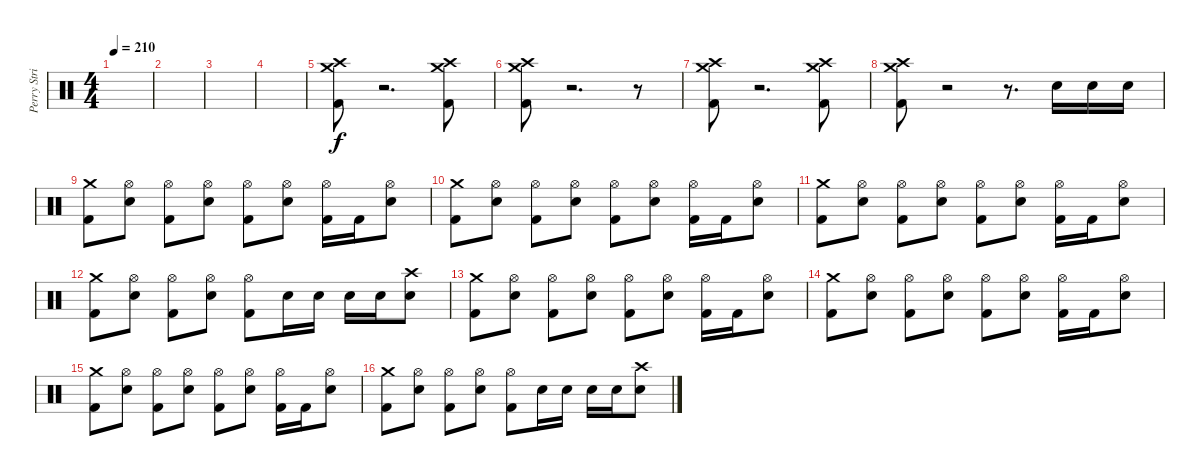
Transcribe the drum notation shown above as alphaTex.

\track ("Perry Strickland" "Perry Stri") {instrument percussion}
\staff {score}
\articulation defaults
\ts (4 4)
\tempo 210
\clef neutral
\ks c
|
|
|
|
("Crash high (hit)" "Crash medium (hit)" "Kick (hit) 2").8 r.2{d} ("Crash high (hit)" "Crash medium (hit)" "Kick (hit) 2").8 |
("Crash high (hit)" "Crash medium (hit)" "Kick (hit) 2").8 r.2{d} r.8 |
("Crash high (hit)" "Crash medium (hit)" "Kick (hit) 2").8 r.2{d} ("Crash high (hit)" "Crash medium (hit)" "Kick (hit) 2").8 |
("Crash high (hit)" "Crash medium (hit)" "Kick (hit) 2").8 r.2 r.8{d} "Snare (hit) 2".16 "Snare (hit) 2".16 "Snare (hit) 2".16 |
("Crash medium (hit)" "Kick (hit) 2").8 ("Hi-Hat (open)" "Snare (hit) 2").8 ("Hi-Hat (open)" "Kick (hit) 2").8 ("Hi-Hat (open)" "Snare (hit) 2").8 ("Hi-Hat (open)" "Kick (hit) 2").8 ("Hi-Hat (open)" "Snare (hit) 2").8 ("Hi-Hat (open)" "Kick (hit) 2").16 "Kick (hit) 2".16 ("Hi-Hat (open)" "Snare (hit) 2").8 |
("Crash medium (hit)" "Kick (hit) 2").8 ("Hi-Hat (open)" "Snare (hit) 2").8 ("Hi-Hat (open)" "Kick (hit) 2").8 ("Hi-Hat (open)" "Snare (hit) 2").8 ("Hi-Hat (open)" "Kick (hit) 2").8 ("Hi-Hat (open)" "Snare (hit) 2").8 ("Hi-Hat (open)" "Kick (hit) 2").16 "Kick (hit) 2".16 ("Hi-Hat (open)" "Snare (hit) 2").8 |
("Crash medium (hit)" "Kick (hit) 2").8 ("Hi-Hat (open)" "Snare (hit) 2").8 ("Hi-Hat (open)" "Kick (hit) 2").8 ("Hi-Hat (open)" "Snare (hit) 2").8 ("Hi-Hat (open)" "Kick (hit) 2").8 ("Hi-Hat (open)" "Snare (hit) 2").8 ("Hi-Hat (open)" "Kick (hit) 2").16 "Kick (hit) 2".16 ("Hi-Hat (open)" "Snare (hit) 2").8 |
("Crash medium (hit)" "Kick (hit) 2").8 ("Hi-Hat (open)" "Snare (hit) 2").8 ("Hi-Hat (open)" "Kick (hit) 2").8 ("Hi-Hat (open)" "Snare (hit) 2").8 ("Hi-Hat (open)" "Kick (hit) 2").8 "Snare (hit) 2".16 "Snare (hit) 2".16 "Snare (hit) 2".16 "Snare (hit) 2".16 ("Crash high (hit)" "Snare (hit) 2").8 |
("Crash medium (hit)" "Kick (hit) 2").8 ("Hi-Hat (open)" "Snare (hit) 2").8 ("Hi-Hat (open)" "Kick (hit) 2").8 ("Hi-Hat (open)" "Snare (hit) 2").8 ("Hi-Hat (open)" "Kick (hit) 2").8 ("Hi-Hat (open)" "Snare (hit) 2").8 ("Hi-Hat (open)" "Kick (hit) 2").16 "Kick (hit) 2".16 ("Hi-Hat (open)" "Snare (hit) 2").8 |
("Crash medium (hit)" "Kick (hit) 2").8 ("Hi-Hat (open)" "Snare (hit) 2").8 ("Hi-Hat (open)" "Kick (hit) 2").8 ("Hi-Hat (open)" "Snare (hit) 2").8 ("Hi-Hat (open)" "Kick (hit) 2").8 ("Hi-Hat (open)" "Snare (hit) 2").8 ("Hi-Hat (open)" "Kick (hit) 2").16 "Kick (hit) 2".16 ("Hi-Hat (open)" "Snare (hit) 2").8 |
("Crash medium (hit)" "Kick (hit) 2").8 ("Hi-Hat (open)" "Snare (hit) 2").8 ("Hi-Hat (open)" "Kick (hit) 2").8 ("Hi-Hat (open)" "Snare (hit) 2").8 ("Hi-Hat (open)" "Kick (hit) 2").8 ("Hi-Hat (open)" "Snare (hit) 2").8 ("Hi-Hat (open)" "Kick (hit) 2").16 "Kick (hit) 2".16 ("Hi-Hat (open)" "Snare (hit) 2").8 |
("Crash medium (hit)" "Kick (hit) 2").8 ("Hi-Hat (open)" "Snare (hit) 2").8 ("Hi-Hat (open)" "Kick (hit) 2").8 ("Hi-Hat (open)" "Snare (hit) 2").8 ("Hi-Hat (open)" "Kick (hit) 2").8 "Snare (hit) 2".16 "Snare (hit) 2".16 "Snare (hit) 2".16 "Snare (hit) 2".16 ("Crash high (hit)" "Snare (hit) 2").8
